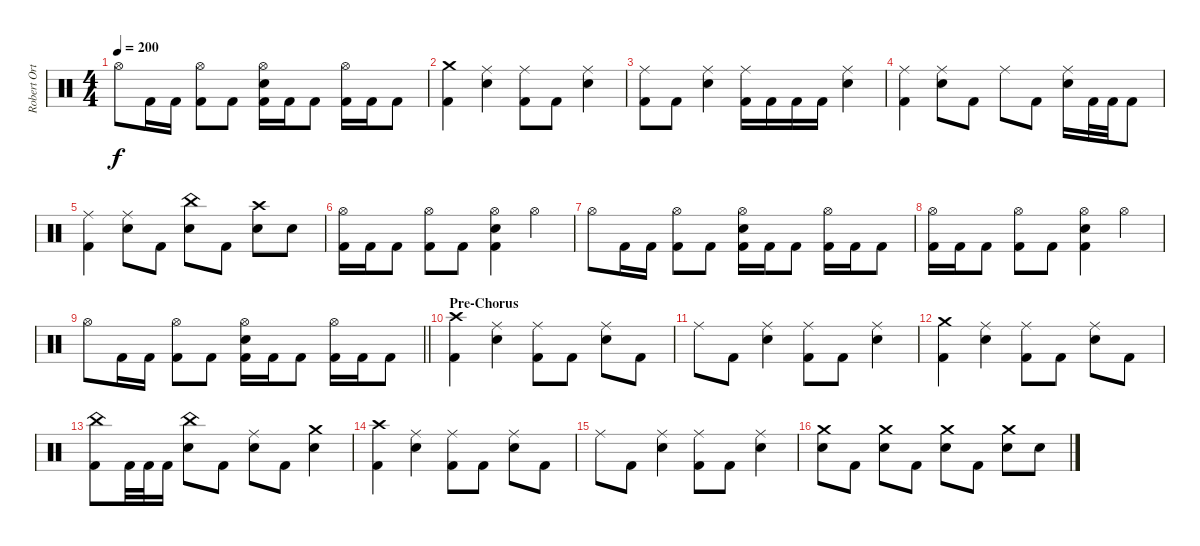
\track ("Robert Ortiz - Drums" "Robert Ort") {instrument percussion}
\staff {score}
\articulation defaults
\ts (4 4)
\tempo 200
\clef neutral
\ks c "Hi-Hat (open)".8{dy f} "Kick (hit) 2".16 "Kick (hit) 2".16
("Hi-Hat (open)" "Kick (hit) 2").8 "Kick (hit) 2".8 ("Hi-Hat (open)" "Electric Snare (hit)" "Kick (hit) 2").16 "Kick (hit) 2".16 "Kick (hit) 2".8 ("Hi-Hat (open)" "Kick (hit) 2").16 "Kick (hit) 2".16 "Kick (hit) 2".8 |
("Crash medium (hit)" "Kick (hit) 2").4 ("Ride (middle)" "Electric Snare (hit)").4 ("Ride (middle)" "Kick (hit) 2").8 "Kick (hit) 2".8 ("Ride (middle)" "Electric Snare (hit)").4 |
("Ride (middle)" "Kick (hit) 2").8 "Kick (hit) 2".8 ("Ride (middle)" "Electric Snare (hit)").4 ("Ride (middle)" "Kick (hit) 2").16 "Kick (hit) 2".16 "Kick (hit) 2".16 "Kick (hit) 2".16 ("Ride (middle)" "Electric Snare (hit)").4 |
("Ride (middle)" "Kick (hit) 2").4 ("Ride (middle)" "Electric Snare (hit)").8 "Kick (hit) 2".8 "Ride (middle)".8 "Kick (hit) 2".8 ("Ride (middle)" "Electric Snare (hit)").16 "Kick (hit) 2".32 "Kick (hit) 2".32 "Kick (hit) 2".8 |
("Ride (middle)" "Kick (hit) 2").4 ("Ride (middle)" "Electric Snare (hit)").8 "Kick (hit) 2".8 ("China (hit)" "Electric Snare (hit)").8 "Kick (hit) 2".8 ("Crash high (hit)" "Electric Snare (hit)").8 "Electric Snare (hit)".8 |
("Hi-Hat (open)" "Kick (hit) 2").16 "Kick (hit) 2".16 "Kick (hit) 2".8 ("Hi-Hat (open)" "Kick (hit) 2").8 "Kick (hit) 2".8 ("Hi-Hat (open)" "Electric Snare (hit)" "Kick (hit) 2").4 "Hi-Hat (open)".4 |
"Hi-Hat (open)".8 "Kick (hit) 2".16 "Kick (hit) 2".16 ("Hi-Hat (open)" "Kick (hit) 2").8 "Kick (hit) 2".8 ("Hi-Hat (open)" "Electric Snare (hit)" "Kick (hit) 2").16 "Kick (hit) 2".16 "Kick (hit) 2".8 ("Hi-Hat (open)" "Kick (hit) 2").16 "Kick (hit) 2".16 "Kick (hit) 2".8 |
("Hi-Hat (open)" "Kick (hit) 2").16 "Kick (hit) 2".16 "Kick (hit) 2".8 ("Hi-Hat (open)" "Kick (hit) 2").8 "Kick (hit) 2".8 ("Hi-Hat (open)" "Electric Snare (hit)" "Kick (hit) 2").4 "Hi-Hat (open)".4 |
\barLineRight lightlight "Hi-Hat (open)".8 "Kick (hit) 2".16 "Kick (hit) 2".16
("Hi-Hat (open)" "Kick (hit) 2").8 "Kick (hit) 2".8 ("Hi-Hat (open)" "Electric Snare (hit)" "Kick (hit) 2").16 "Kick (hit) 2".16 "Kick (hit) 2".8 ("Hi-Hat (open)" "Kick (hit) 2").16 "Kick (hit) 2".16 "Kick (hit) 2".8 |
\section ("" "Pre-Chorus")
("Crash high (hit)" "Kick (hit) 2").4 ("Ride (middle)" "Electric Snare (hit)").4 ("Ride (middle)" "Kick (hit) 2").8 "Kick (hit) 2".8 ("Ride (middle)" "Electric Snare (hit)").8 "Kick (hit) 2".8 |
"Ride (middle)".8 "Kick (hit) 2".8 ("Ride (middle)" "Electric Snare (hit)").4 ("Ride (middle)" "Kick (hit) 2").8 "Kick (hit) 2".8 ("Ride (middle)" "Electric Snare (hit)").4 |
("Crash medium (hit)" "Kick (hit) 2").4 ("Ride (middle)" "Electric Snare (hit)").4 ("Ride (middle)" "Kick (hit) 2").8 "Kick (hit) 2".8 ("Ride (middle)" "Electric Snare (hit)").8 "Kick (hit) 2".8 |
("China (hit)" "Kick (hit) 2").8 "Kick (hit) 2".32 "Kick (hit) 2".32 "Kick (hit) 2".16 ("China (hit)" "Electric Snare (hit)").8 "Kick (hit) 2".8 ("Ride (middle)" "Electric Snare (hit)").8 "Kick (hit) 2".8 ("Crash medium (hit)" "Electric Snare (hit)").4 |
("Crash high (hit)" "Kick (hit) 2").4 ("Ride (middle)" "Electric Snare (hit)").4 ("Ride (middle)" "Kick (hit) 2").8 "Kick (hit) 2".8 ("Ride (middle)" "Electric Snare (hit)").8 "Kick (hit) 2".8 |
"Ride (middle)".8 "Kick (hit) 2".8 ("Ride (middle)" "Electric Snare (hit)").4 ("Ride (middle)" "Kick (hit) 2").8 "Kick (hit) 2".8 ("Ride (middle)" "Electric Snare (hit)").4 |
("Crash medium (hit)" "Electric Snare (hit)").8 "Kick (hit) 2".8 ("Crash medium (hit)" "Electric Snare (hit)").8 "Kick (hit) 2".8 ("Crash medium (hit)" "Electric Snare (hit)").8 "Kick (hit) 2".8 ("Crash medium (hit)" "Electric Snare (hit)").8 "Electric Snare (hit)".8
